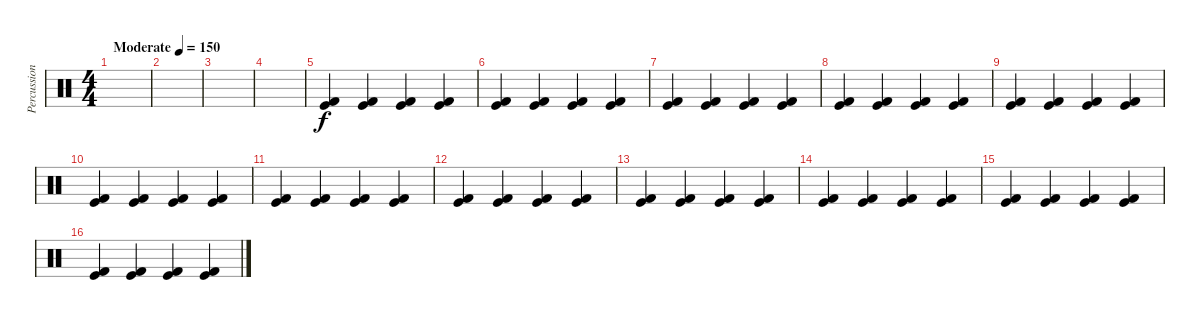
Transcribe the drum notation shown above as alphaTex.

\track ("Percussion" "Percussion") {instrument percussion}
\staff {score}
\articulation defaults
\ts (4 4)
\tempo (150 "Moderate")
\clef neutral
\ks c
|
|
|
|
("Kick (hit) 2" "Kick (hit)").4 ("Kick (hit) 2" "Kick (hit)").4 ("Kick (hit) 2" "Kick (hit)").4 ("Kick (hit) 2" "Kick (hit)").4 |
("Kick (hit) 2" "Kick (hit)").4 ("Kick (hit) 2" "Kick (hit)").4 ("Kick (hit) 2" "Kick (hit)").4 ("Kick (hit) 2" "Kick (hit)").4 |
("Kick (hit) 2" "Kick (hit)").4 ("Kick (hit) 2" "Kick (hit)").4 ("Kick (hit) 2" "Kick (hit)").4 ("Kick (hit) 2" "Kick (hit)").4 |
("Kick (hit) 2" "Kick (hit)").4 ("Kick (hit) 2" "Kick (hit)").4 ("Kick (hit) 2" "Kick (hit)").4 ("Kick (hit) 2" "Kick (hit)").4 |
("Kick (hit) 2" "Kick (hit)").4 ("Kick (hit) 2" "Kick (hit)").4 ("Kick (hit) 2" "Kick (hit)").4 ("Kick (hit) 2" "Kick (hit)").4 |
("Kick (hit) 2" "Kick (hit)").4 ("Kick (hit) 2" "Kick (hit)").4 ("Kick (hit) 2" "Kick (hit)").4 ("Kick (hit) 2" "Kick (hit)").4 |
("Kick (hit) 2" "Kick (hit)").4 ("Kick (hit) 2" "Kick (hit)").4 ("Kick (hit) 2" "Kick (hit)").4 ("Kick (hit) 2" "Kick (hit)").4 |
("Kick (hit) 2" "Kick (hit)").4 ("Kick (hit) 2" "Kick (hit)").4 ("Kick (hit) 2" "Kick (hit)").4 ("Kick (hit) 2" "Kick (hit)").4 |
("Kick (hit) 2" "Kick (hit)").4 ("Kick (hit) 2" "Kick (hit)").4 ("Kick (hit) 2" "Kick (hit)").4 ("Kick (hit) 2" "Kick (hit)").4 |
("Kick (hit) 2" "Kick (hit)").4 ("Kick (hit) 2" "Kick (hit)").4 ("Kick (hit) 2" "Kick (hit)").4 ("Kick (hit) 2" "Kick (hit)").4 |
("Kick (hit) 2" "Kick (hit)").4 ("Kick (hit) 2" "Kick (hit)").4 ("Kick (hit) 2" "Kick (hit)").4 ("Kick (hit) 2" "Kick (hit)").4 |
("Kick (hit) 2" "Kick (hit)").4 ("Kick (hit) 2" "Kick (hit)").4 ("Kick (hit) 2" "Kick (hit)").4 ("Kick (hit) 2" "Kick (hit)").4
